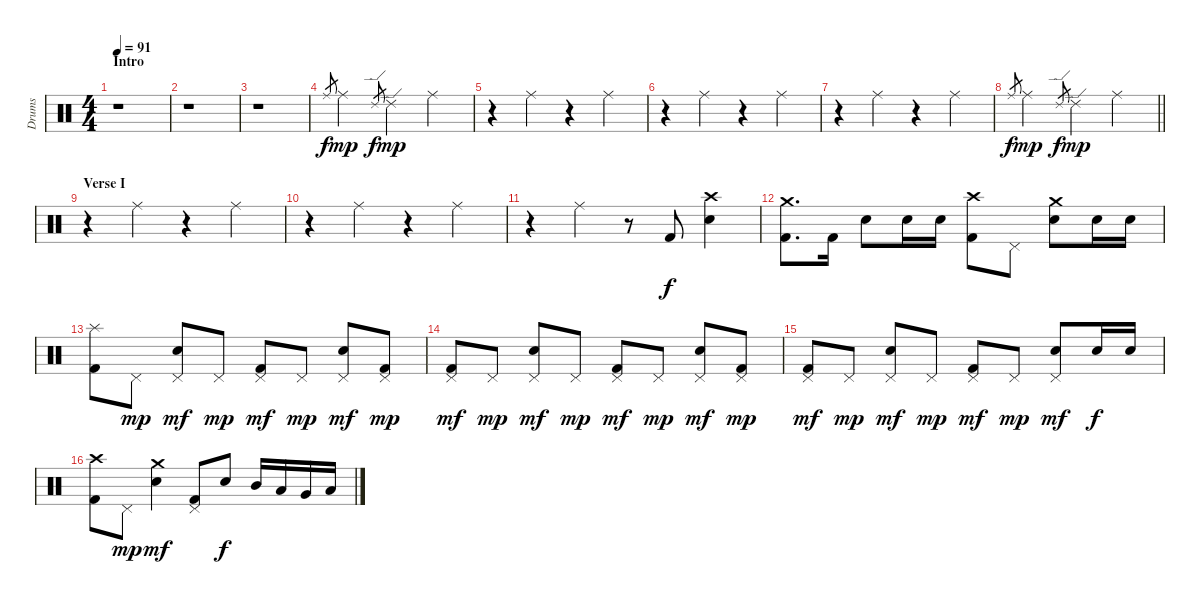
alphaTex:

\track ("Drums" "Drums") {instrument percussion}
\staff {score}
\articulation defaults
\ts (4 4)
\section ("" "Intro ")
\tempo 91
\clef neutral
\ks c
r.1{dy f} |
r.1 |
r.1 |
"Ride (middle)".8{gr} "Ride (middle)".2{dy mp} "Ride (edge) 2".8{gr dy f} "Ride (edge) 2".4{dy mp} "Ride (middle)".4 |
r.4 "Ride (middle)".4 r.4 "Ride (middle)".4 |
r.4 "Ride (middle)".4 r.4 "Ride (middle)".4 |
r.4 "Ride (middle)".4 r.4 "Ride (middle)".4 |
\barLineRight lightlight "Ride (middle)".8{gr dy f} "Ride (middle)".2{dy mp} "Ride (edge) 2".8{gr dy f} "Ride (edge) 2".4{dy mp} "Ride (middle)".4
|
\section ("" "Verse I")
r.4 "Ride (middle)".4 r.4 "Ride (middle)".4 |
r.4 "Ride (middle)".4 r.4 "Ride (middle)".4 |
r.4 "Ride (middle)".4 r.8 "Kick (hit) 2".8{dy f} ("Crash high (hit)" "Snare (hit) 2").4 |
("Crash medium (hit)" "Kick (hit) 2").8{d} "Kick (hit) 2".16 "Snare (hit) 2".8 "Snare (hit) 2".16 "Snare (hit) 2".16 ("Crash high (hit)" "Kick (hit) 2").8 "Pedal Hi-Hat (hit)".8 ("Crash medium (hit)" "Snare (hit) 2").8 "Snare (hit) 2".16 "Snare (hit) 2".16 |
("Splash (hit)" "Kick (hit) 2").8 "Pedal Hi-Hat (hit)".8{dy mp} ("Pedal Hi-Hat (hit)" "Snare (hit) 2").8{dy mf} "Pedal Hi-Hat (hit)".8{dy mp} ("Pedal Hi-Hat (hit)" "Kick (hit) 2").8{dy mf} "Pedal Hi-Hat (hit)".8{dy mp} ("Pedal Hi-Hat (hit)" "Snare (hit) 2").8{dy mf} ("Pedal Hi-Hat (hit)" "Kick (hit) 2").8{dy mp} |
("Pedal Hi-Hat (hit)" "Kick (hit) 2").8{dy mf} "Pedal Hi-Hat (hit)".8{dy mp} ("Pedal Hi-Hat (hit)" "Snare (hit) 2").8{dy mf} "Pedal Hi-Hat (hit)".8{dy mp} ("Pedal Hi-Hat (hit)" "Kick (hit) 2").8{dy mf} "Pedal Hi-Hat (hit)".8{dy mp} ("Pedal Hi-Hat (hit)" "Snare (hit) 2").8{dy mf} ("Pedal Hi-Hat (hit)" "Kick (hit) 2").8{dy mp} |
("Pedal Hi-Hat (hit)" "Kick (hit) 2").8{dy mf} "Pedal Hi-Hat (hit)".8{dy mp} ("Pedal Hi-Hat (hit)" "Snare (hit) 2").8{dy mf} "Pedal Hi-Hat (hit)".8{dy mp} ("Pedal Hi-Hat (hit)" "Kick (hit) 2").8{dy mf} "Pedal Hi-Hat (hit)".8{dy mp} ("Pedal Hi-Hat (hit)" "Snare (hit) 2").8{dy mf} "Snare (hit) 2".16{dy f} "Snare (hit) 2".16 |
("Crash high (hit)" "Kick (hit) 2").8 "Pedal Hi-Hat (hit)".8{dy mp} ("Crash medium (hit)" "Snare (hit) 2").4{dy mf} ("Pedal Hi-Hat (hit)" "Kick (hit) 2").8 "Snare (hit) 2".8{dy f} "Mid Tom (hit)".16 "Low Tom (hit)".16 "Very Low Tom (hit)".16 "Low Floor Tom (hit)".16
